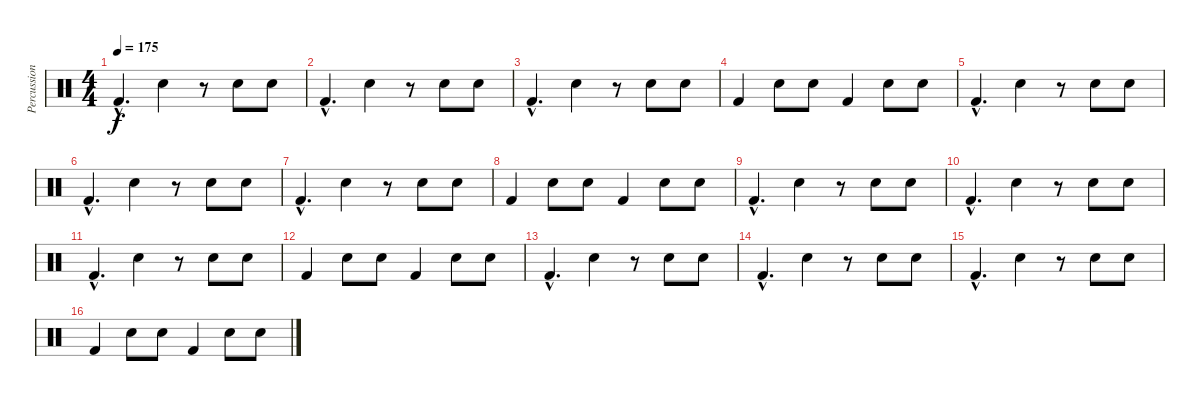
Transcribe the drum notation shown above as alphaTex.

\track ("Percussions" "Percussion") {instrument percussion}
\staff {score}
\articulation defaults
\ts (4 4)
\tempo 175
\clef neutral
\ks c "Kick (hit) 2"{hac}.4{d dy f} "Snare (hit) 2".4
r.8 "Snare (hit) 2".8 "Snare (hit) 2".8 |
"Kick (hit) 2"{hac}.4{d} "Snare (hit) 2".4 r.8 "Snare (hit) 2".8 "Snare (hit) 2".8 |
"Kick (hit) 2"{hac}.4{d} "Snare (hit) 2".4 r.8 "Snare (hit) 2".8 "Snare (hit) 2".8 |
"Kick (hit) 2".4 "Snare (hit) 2".8 "Snare (hit) 2".8 "Kick (hit) 2".4 "Snare (hit) 2".8 "Snare (hit) 2".8 |
"Kick (hit) 2"{hac}.4{d} "Snare (hit) 2".4 r.8 "Snare (hit) 2".8 "Snare (hit) 2".8 |
"Kick (hit) 2"{hac}.4{d} "Snare (hit) 2".4 r.8 "Snare (hit) 2".8 "Snare (hit) 2".8 |
"Kick (hit) 2"{hac}.4{d} "Snare (hit) 2".4 r.8 "Snare (hit) 2".8 "Snare (hit) 2".8 |
"Kick (hit) 2".4 "Snare (hit) 2".8 "Snare (hit) 2".8 "Kick (hit) 2".4 "Snare (hit) 2".8 "Snare (hit) 2".8 |
"Kick (hit) 2"{hac}.4{d} "Snare (hit) 2".4 r.8 "Snare (hit) 2".8 "Snare (hit) 2".8 |
"Kick (hit) 2"{hac}.4{d} "Snare (hit) 2".4 r.8 "Snare (hit) 2".8 "Snare (hit) 2".8 |
"Kick (hit) 2"{hac}.4{d} "Snare (hit) 2".4 r.8 "Snare (hit) 2".8 "Snare (hit) 2".8 |
"Kick (hit) 2".4 "Snare (hit) 2".8 "Snare (hit) 2".8 "Kick (hit) 2".4 "Snare (hit) 2".8 "Snare (hit) 2".8 |
"Kick (hit) 2"{hac}.4{d} "Snare (hit) 2".4 r.8 "Snare (hit) 2".8 "Snare (hit) 2".8 |
"Kick (hit) 2"{hac}.4{d} "Snare (hit) 2".4 r.8 "Snare (hit) 2".8 "Snare (hit) 2".8 |
"Kick (hit) 2"{hac}.4{d} "Snare (hit) 2".4 r.8 "Snare (hit) 2".8 "Snare (hit) 2".8 |
"Kick (hit) 2".4 "Snare (hit) 2".8 "Snare (hit) 2".8 "Kick (hit) 2".4 "Snare (hit) 2".8 "Snare (hit) 2".8
